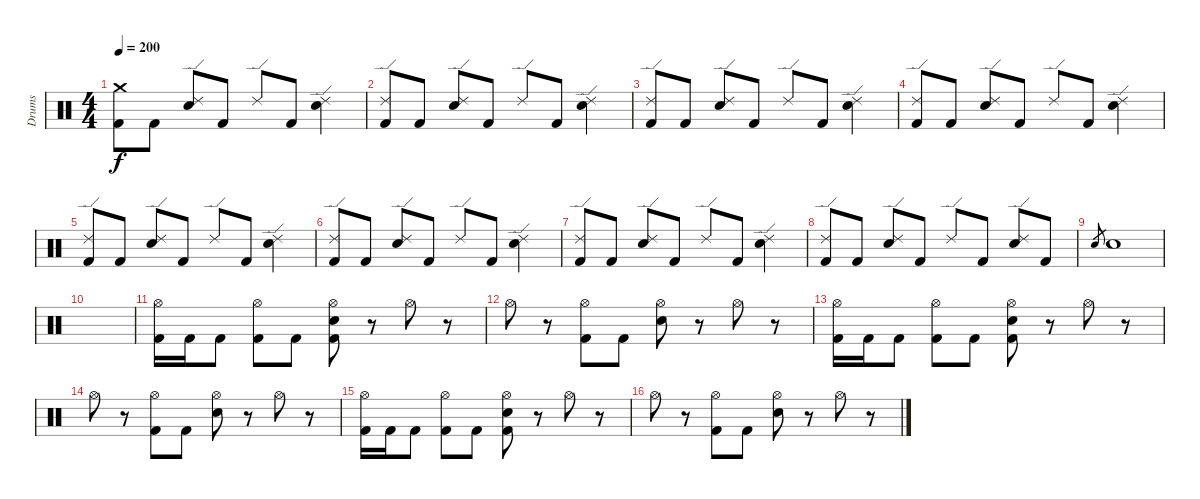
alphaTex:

\track ("Drums" "Drums") {instrument percussion}
\staff {score}
\articulation defaults
\ts (4 4)
\tempo 200
\clef neutral
\ks c
("Kick (hit) 2" "Crash medium (hit)").8{dy f} "Kick (hit) 2".8 ("Electric Snare (hit)" "Ride (edge) 2").8 "Kick (hit) 2".8 "Ride (edge) 2".8 "Kick (hit) 2".8 ("Electric Snare (hit)" "Ride (edge) 2").4 |
("Kick (hit) 2" "Ride (edge) 2").8 "Kick (hit) 2".8 ("Electric Snare (hit)" "Ride (edge) 2").8 "Kick (hit) 2".8 "Ride (edge) 2".8 "Kick (hit) 2".8 ("Electric Snare (hit)" "Ride (edge) 2").4 |
("Kick (hit) 2" "Ride (edge) 2").8 "Kick (hit) 2".8 ("Electric Snare (hit)" "Ride (edge) 2").8 "Kick (hit) 2".8 "Ride (edge) 2".8 "Kick (hit) 2".8 ("Electric Snare (hit)" "Ride (edge) 2").4 |
("Kick (hit) 2" "Ride (edge) 2").8 "Kick (hit) 2".8 ("Electric Snare (hit)" "Ride (edge) 2").8 "Kick (hit) 2".8 "Ride (edge) 2".8 "Kick (hit) 2".8 ("Electric Snare (hit)" "Ride (edge) 2").4 |
("Kick (hit) 2" "Ride (edge) 2").8 "Kick (hit) 2".8 ("Electric Snare (hit)" "Ride (edge) 2").8 "Kick (hit) 2".8 "Ride (edge) 2".8 "Kick (hit) 2".8 ("Electric Snare (hit)" "Ride (edge) 2").4 |
("Kick (hit) 2" "Ride (edge) 2").8 "Kick (hit) 2".8 ("Electric Snare (hit)" "Ride (edge) 2").8 "Kick (hit) 2".8 "Ride (edge) 2".8 "Kick (hit) 2".8 ("Electric Snare (hit)" "Ride (edge) 2").4 |
("Kick (hit) 2" "Ride (edge) 2").8 "Kick (hit) 2".8 ("Electric Snare (hit)" "Ride (edge) 2").8 "Kick (hit) 2".8 "Ride (edge) 2".8 "Kick (hit) 2".8 ("Electric Snare (hit)" "Ride (edge) 2").4 |
("Kick (hit) 2" "Ride (edge) 2").8 "Kick (hit) 2".8 ("Electric Snare (hit)" "Ride (edge) 2").8 "Kick (hit) 2".8 "Ride (edge) 2".8 "Kick (hit) 2".8 ("Electric Snare (hit)" "Ride (edge) 2").8 "Kick (hit) 2".8 |
"Electric Snare (hit)".8{gr} "Electric Snare (hit)".1 |
|
("Kick (hit) 2" "Hi-Hat (open)").16 "Kick (hit) 2".16 "Kick (hit) 2".8 ("Kick (hit) 2" "Hi-Hat (open)").8 "Kick (hit) 2".8 ("Kick (hit) 2" "Electric Snare (hit)" "Hi-Hat (open)").8 r.8 "Hi-Hat (open)".8 r.8 |
"Hi-Hat (open)".8 r.8 ("Kick (hit) 2" "Hi-Hat (open)").8 "Kick (hit) 2".8 ("Electric Snare (hit)" "Hi-Hat (open)").8 r.8 "Hi-Hat (open)".8 r.8 |
("Kick (hit) 2" "Hi-Hat (open)").16 "Kick (hit) 2".16 "Kick (hit) 2".8 ("Kick (hit) 2" "Hi-Hat (open)").8 "Kick (hit) 2".8 ("Kick (hit) 2" "Electric Snare (hit)" "Hi-Hat (open)").8 r.8 "Hi-Hat (open)".8 r.8 |
"Hi-Hat (open)".8 r.8 ("Kick (hit) 2" "Hi-Hat (open)").8 "Kick (hit) 2".8 ("Electric Snare (hit)" "Hi-Hat (open)").8 r.8 "Hi-Hat (open)".8 r.8 |
("Kick (hit) 2" "Hi-Hat (open)").16 "Kick (hit) 2".16 "Kick (hit) 2".8 ("Kick (hit) 2" "Hi-Hat (open)").8 "Kick (hit) 2".8 ("Kick (hit) 2" "Electric Snare (hit)" "Hi-Hat (open)").8 r.8 "Hi-Hat (open)".8 r.8 |
"Hi-Hat (open)".8 r.8 ("Kick (hit) 2" "Hi-Hat (open)").8 "Kick (hit) 2".8 ("Electric Snare (hit)" "Hi-Hat (open)").8 r.8 "Hi-Hat (open)".8 r.8
